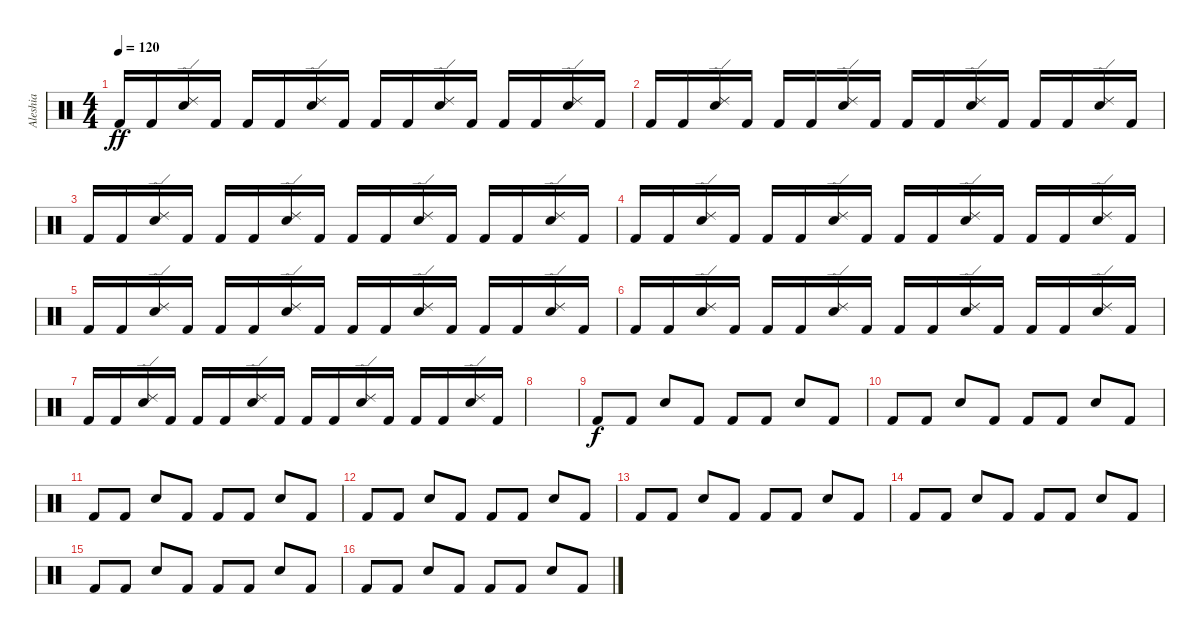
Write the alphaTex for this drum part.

\track ("Aleshia" "Aleshia") {instrument percussion}
\staff {score}
\articulation defaults
\ts (4 4)
\tempo 120
\clef neutral
\ks c "Kick (hit) 2".16{dy ff} "Kick (hit) 2".16
("Ride (edge) 2" "Snare (hit) 2").16 "Kick (hit) 2".16 "Kick (hit) 2".16 "Kick (hit) 2".16 ("Ride (edge) 2" "Snare (hit) 2").16 "Kick (hit) 2".16 "Kick (hit) 2".16 "Kick (hit) 2".16 ("Ride (edge) 2" "Snare (hit) 2").16 "Kick (hit) 2".16 "Kick (hit) 2".16 "Kick (hit) 2".16 ("Ride (edge) 2" "Snare (hit) 2").16 "Kick (hit) 2".16 |
"Kick (hit) 2".16 "Kick (hit) 2".16 ("Ride (edge) 2" "Snare (hit) 2").16 "Kick (hit) 2".16 "Kick (hit) 2".16 "Kick (hit) 2".16 ("Ride (edge) 2" "Snare (hit) 2").16 "Kick (hit) 2".16 "Kick (hit) 2".16 "Kick (hit) 2".16 ("Ride (edge) 2" "Snare (hit) 2").16 "Kick (hit) 2".16 "Kick (hit) 2".16 "Kick (hit) 2".16 ("Ride (edge) 2" "Snare (hit) 2").16 "Kick (hit) 2".16 |
"Kick (hit) 2".16 "Kick (hit) 2".16 ("Ride (edge) 2" "Snare (hit) 2").16 "Kick (hit) 2".16 "Kick (hit) 2".16 "Kick (hit) 2".16 ("Ride (edge) 2" "Snare (hit) 2").16 "Kick (hit) 2".16 "Kick (hit) 2".16 "Kick (hit) 2".16 ("Ride (edge) 2" "Snare (hit) 2").16 "Kick (hit) 2".16 "Kick (hit) 2".16 "Kick (hit) 2".16 ("Ride (edge) 2" "Snare (hit) 2").16 "Kick (hit) 2".16 |
"Kick (hit) 2".16 "Kick (hit) 2".16 ("Ride (edge) 2" "Snare (hit) 2").16 "Kick (hit) 2".16 "Kick (hit) 2".16 "Kick (hit) 2".16 ("Ride (edge) 2" "Snare (hit) 2").16 "Kick (hit) 2".16 "Kick (hit) 2".16 "Kick (hit) 2".16 ("Ride (edge) 2" "Snare (hit) 2").16 "Kick (hit) 2".16 "Kick (hit) 2".16 "Kick (hit) 2".16 ("Ride (edge) 2" "Snare (hit) 2").16 "Kick (hit) 2".16 |
"Kick (hit) 2".16 "Kick (hit) 2".16 ("Ride (edge) 2" "Snare (hit) 2").16 "Kick (hit) 2".16 "Kick (hit) 2".16 "Kick (hit) 2".16 ("Ride (edge) 2" "Snare (hit) 2").16 "Kick (hit) 2".16 "Kick (hit) 2".16 "Kick (hit) 2".16 ("Ride (edge) 2" "Snare (hit) 2").16 "Kick (hit) 2".16 "Kick (hit) 2".16 "Kick (hit) 2".16 ("Ride (edge) 2" "Snare (hit) 2").16 "Kick (hit) 2".16 |
"Kick (hit) 2".16 "Kick (hit) 2".16 ("Ride (edge) 2" "Snare (hit) 2").16 "Kick (hit) 2".16 "Kick (hit) 2".16 "Kick (hit) 2".16 ("Ride (edge) 2" "Snare (hit) 2").16 "Kick (hit) 2".16 "Kick (hit) 2".16 "Kick (hit) 2".16 ("Ride (edge) 2" "Snare (hit) 2").16 "Kick (hit) 2".16 "Kick (hit) 2".16 "Kick (hit) 2".16 ("Ride (edge) 2" "Snare (hit) 2").16 "Kick (hit) 2".16 |
"Kick (hit) 2".16 "Kick (hit) 2".16 ("Ride (edge) 2" "Snare (hit) 2").16 "Kick (hit) 2".16 "Kick (hit) 2".16 "Kick (hit) 2".16 ("Ride (edge) 2" "Snare (hit) 2").16 "Kick (hit) 2".16 "Kick (hit) 2".16 "Kick (hit) 2".16 ("Ride (edge) 2" "Snare (hit) 2").16 "Kick (hit) 2".16 "Kick (hit) 2".16 "Kick (hit) 2".16 ("Ride (edge) 2" "Snare (hit) 2").16 "Kick (hit) 2".16 |
|
"Kick (hit) 2".8{dy f} "Kick (hit) 2".8 "Snare (hit) 2".8 "Kick (hit) 2".8 "Kick (hit) 2".8 "Kick (hit) 2".8 "Snare (hit) 2".8 "Kick (hit) 2".8 |
"Kick (hit) 2".8 "Kick (hit) 2".8 "Snare (hit) 2".8 "Kick (hit) 2".8 "Kick (hit) 2".8 "Kick (hit) 2".8 "Snare (hit) 2".8 "Kick (hit) 2".8 |
"Kick (hit) 2".8 "Kick (hit) 2".8 "Snare (hit) 2".8 "Kick (hit) 2".8 "Kick (hit) 2".8 "Kick (hit) 2".8 "Snare (hit) 2".8 "Kick (hit) 2".8 |
"Kick (hit) 2".8 "Kick (hit) 2".8 "Snare (hit) 2".8 "Kick (hit) 2".8 "Kick (hit) 2".8 "Kick (hit) 2".8 "Snare (hit) 2".8 "Kick (hit) 2".8 |
"Kick (hit) 2".8 "Kick (hit) 2".8 "Snare (hit) 2".8 "Kick (hit) 2".8 "Kick (hit) 2".8 "Kick (hit) 2".8 "Snare (hit) 2".8 "Kick (hit) 2".8 |
"Kick (hit) 2".8 "Kick (hit) 2".8 "Snare (hit) 2".8 "Kick (hit) 2".8 "Kick (hit) 2".8 "Kick (hit) 2".8 "Snare (hit) 2".8 "Kick (hit) 2".8 |
"Kick (hit) 2".8 "Kick (hit) 2".8 "Snare (hit) 2".8 "Kick (hit) 2".8 "Kick (hit) 2".8 "Kick (hit) 2".8 "Snare (hit) 2".8 "Kick (hit) 2".8 |
"Kick (hit) 2".8 "Kick (hit) 2".8 "Snare (hit) 2".8 "Kick (hit) 2".8 "Kick (hit) 2".8 "Kick (hit) 2".8 "Snare (hit) 2".8 "Kick (hit) 2".8
